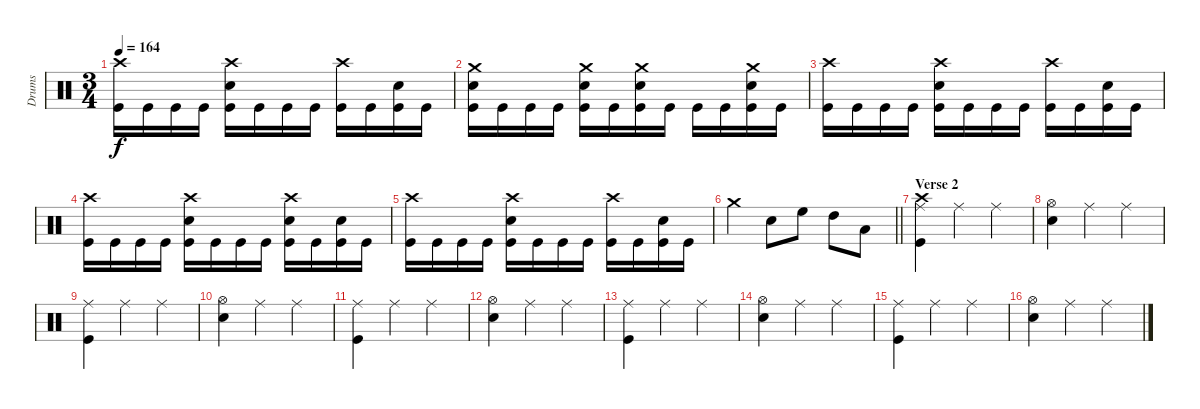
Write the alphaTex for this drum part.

\track ("Drums" "Drums") {instrument percussion}
\staff {score}
\articulation defaults
\ts (3 4)
\tempo 164
\clef neutral
\ks c
("Crash high (hit)" "Kick (hit)").16{dy f} "Kick (hit)".16 "Kick (hit)".16 "Kick (hit)".16 ("Crash high (hit)" "Snare (hit) 2" "Kick (hit)").16 "Kick (hit)".16 "Kick (hit)".16 "Kick (hit)".16 ("Crash high (hit)" "Kick (hit)").16 "Kick (hit)".16 ("Snare (hit) 2" "Kick (hit)").16 "Kick (hit)".16 |
("Crash medium (hit)" "Snare (hit) 2" "Kick (hit)").16 "Kick (hit)".16 "Kick (hit)".16 "Kick (hit)".16 ("Crash medium (hit)" "Snare (hit) 2" "Kick (hit)").16 "Kick (hit)".16 ("Crash medium (hit)" "Snare (hit) 2" "Kick (hit)").16 "Kick (hit)".16 "Kick (hit)".16 "Kick (hit)".16 ("Crash medium (hit)" "Snare (hit) 2" "Kick (hit)").16 "Kick (hit)".16 |
("Crash high (hit)" "Kick (hit)").16 "Kick (hit)".16 "Kick (hit)".16 "Kick (hit)".16 ("Crash high (hit)" "Snare (hit) 2" "Kick (hit)").16 "Kick (hit)".16 "Kick (hit)".16 "Kick (hit)".16 ("Crash high (hit)" "Kick (hit)").16 "Kick (hit)".16 ("Snare (hit) 2" "Kick (hit)").16 "Kick (hit)".16 |
("Crash high (hit)" "Kick (hit)").16 "Kick (hit)".16 "Kick (hit)".16 "Kick (hit)".16 ("Crash high (hit)" "Snare (hit) 2" "Kick (hit)").16 "Kick (hit)".16 "Kick (hit)".16 "Kick (hit)".16 ("Crash high (hit)" "Snare (hit) 2" "Kick (hit)").16 "Kick (hit)".16 ("Snare (hit) 2" "Kick (hit)").16 "Kick (hit)".16 |
("Crash high (hit)" "Kick (hit)").16 "Kick (hit)".16 "Kick (hit)".16 "Kick (hit)".16 ("Crash high (hit)" "Snare (hit) 2" "Kick (hit)").16 "Kick (hit)".16 "Kick (hit)".16 "Kick (hit)".16 ("Crash high (hit)" "Kick (hit)").16 "Kick (hit)".16 ("Snare (hit) 2" "Kick (hit)").16 "Kick (hit)".16 |
\barLineRight lightlight "Crash medium (hit)".4 "Snare (hit) 2".8 "High Floor Tom (hit)".8 "High Tom (hit)".8 "Low Tom (hit)".8
|
\section ("" "Verse 2")
("Crash high (hit)" "Ride (middle)" "Kick (hit)").4 "Ride (middle)".4 "Ride (middle)".4 |
("Hi-Hat (open)" "Electric Snare (hit)").4 "Ride (middle)".4 "Ride (middle)".4 |
("Ride (middle)" "Kick (hit)").4 "Ride (middle)".4 "Ride (middle)".4 |
("Hi-Hat (open)" "Electric Snare (hit)").4 "Ride (middle)".4 "Ride (middle)".4 |
("Ride (middle)" "Kick (hit)").4 "Ride (middle)".4 "Ride (middle)".4 |
("Hi-Hat (open)" "Electric Snare (hit)").4 "Ride (middle)".4 "Ride (middle)".4 |
("Ride (middle)" "Kick (hit)").4 "Ride (middle)".4 "Ride (middle)".4 |
("Hi-Hat (open)" "Electric Snare (hit)").4 "Ride (middle)".4 "Ride (middle)".4 |
("Ride (middle)" "Kick (hit)").4 "Ride (middle)".4 "Ride (middle)".4 |
("Hi-Hat (open)" "Electric Snare (hit)").4 "Ride (middle)".4 "Ride (middle)".4
